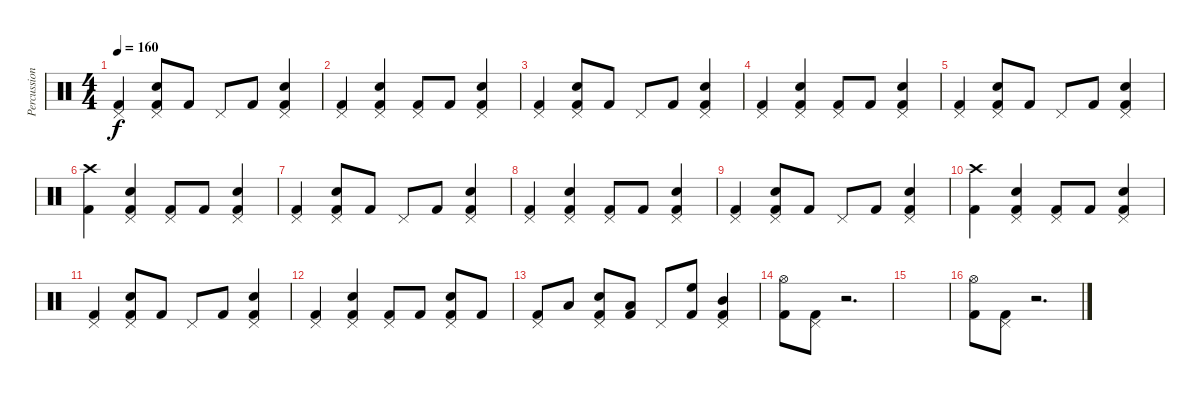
\track ("Percussion" "Percussion") {instrument percussion}
\staff {score}
\articulation defaults
\ts (4 4)
\tempo 160
\clef neutral
\ks c
("Pedal Hi-Hat (hit)" "Kick (hit) 2").4{dy f} ("Pedal Hi-Hat (hit)" "Snare (hit) 2" "Kick (hit) 2").8 "Kick (hit) 2".8 "Pedal Hi-Hat (hit)".8 "Kick (hit) 2".8 ("Pedal Hi-Hat (hit)" "Snare (hit) 2" "Kick (hit) 2").4 |
("Pedal Hi-Hat (hit)" "Kick (hit) 2").4 ("Pedal Hi-Hat (hit)" "Snare (hit) 2" "Kick (hit) 2").4 ("Pedal Hi-Hat (hit)" "Kick (hit) 2").8 "Kick (hit) 2".8 ("Pedal Hi-Hat (hit)" "Snare (hit) 2" "Kick (hit) 2").4 |
("Pedal Hi-Hat (hit)" "Kick (hit) 2").4 ("Pedal Hi-Hat (hit)" "Snare (hit) 2" "Kick (hit) 2").8 "Kick (hit) 2".8 "Pedal Hi-Hat (hit)".8 "Kick (hit) 2".8 ("Pedal Hi-Hat (hit)" "Snare (hit) 2" "Kick (hit) 2").4 |
("Pedal Hi-Hat (hit)" "Kick (hit) 2").4 ("Pedal Hi-Hat (hit)" "Snare (hit) 2" "Kick (hit) 2").4 ("Pedal Hi-Hat (hit)" "Kick (hit) 2").8 "Kick (hit) 2".8 ("Pedal Hi-Hat (hit)" "Snare (hit) 2" "Kick (hit) 2").4 |
("Pedal Hi-Hat (hit)" "Kick (hit) 2").4 ("Pedal Hi-Hat (hit)" "Snare (hit) 2" "Kick (hit) 2").8 "Kick (hit) 2".8 "Pedal Hi-Hat (hit)".8 "Kick (hit) 2".8 ("Pedal Hi-Hat (hit)" "Snare (hit) 2" "Kick (hit) 2").4 |
("Crash high (hit)" "Kick (hit) 2").4 ("Pedal Hi-Hat (hit)" "Snare (hit) 2" "Kick (hit) 2").4 ("Pedal Hi-Hat (hit)" "Kick (hit) 2").8 "Kick (hit) 2".8 ("Pedal Hi-Hat (hit)" "Snare (hit) 2" "Kick (hit) 2").4 |
("Pedal Hi-Hat (hit)" "Kick (hit) 2").4 ("Pedal Hi-Hat (hit)" "Snare (hit) 2" "Kick (hit) 2").8 "Kick (hit) 2".8 "Pedal Hi-Hat (hit)".8 "Kick (hit) 2".8 ("Pedal Hi-Hat (hit)" "Snare (hit) 2" "Kick (hit) 2").4 |
("Pedal Hi-Hat (hit)" "Kick (hit) 2").4 ("Pedal Hi-Hat (hit)" "Snare (hit) 2" "Kick (hit) 2").4 ("Pedal Hi-Hat (hit)" "Kick (hit) 2").8 "Kick (hit) 2".8 ("Pedal Hi-Hat (hit)" "Snare (hit) 2" "Kick (hit) 2").4 |
("Pedal Hi-Hat (hit)" "Kick (hit) 2").4 ("Pedal Hi-Hat (hit)" "Snare (hit) 2" "Kick (hit) 2").8 "Kick (hit) 2".8 "Pedal Hi-Hat (hit)".8 "Kick (hit) 2".8 ("Pedal Hi-Hat (hit)" "Snare (hit) 2" "Kick (hit) 2").4 |
("Crash high (hit)" "Kick (hit) 2").4 ("Pedal Hi-Hat (hit)" "Snare (hit) 2" "Kick (hit) 2").4 ("Pedal Hi-Hat (hit)" "Kick (hit) 2").8 "Kick (hit) 2".8 ("Pedal Hi-Hat (hit)" "Snare (hit) 2" "Kick (hit) 2").4 |
("Pedal Hi-Hat (hit)" "Kick (hit) 2").4 ("Pedal Hi-Hat (hit)" "Snare (hit) 2" "Kick (hit) 2").8 "Kick (hit) 2".8 "Pedal Hi-Hat (hit)".8 "Kick (hit) 2".8 ("Pedal Hi-Hat (hit)" "Snare (hit) 2" "Kick (hit) 2").4 |
("Pedal Hi-Hat (hit)" "Kick (hit) 2").4 ("Pedal Hi-Hat (hit)" "Snare (hit) 2" "Kick (hit) 2").4 ("Pedal Hi-Hat (hit)" "Kick (hit) 2").8 "Kick (hit) 2".8 ("Pedal Hi-Hat (hit)" "Snare (hit) 2" "Kick (hit) 2").8 "Kick (hit) 2".8 |
("Pedal Hi-Hat (hit)" "Kick (hit) 2").8 "Low Tom (hit)".8 ("Pedal Hi-Hat (hit)" "Snare (hit) 2" "Kick (hit) 2").8 ("Low Tom (hit)" "Kick (hit) 2").8 "Pedal Hi-Hat (hit)".8 ("High Floor Tom (hit)" "Kick (hit) 2").8 ("Pedal Hi-Hat (hit)" "Mid Tom (hit)" "Kick (hit) 2").4 |
("Hi-Hat (open)" "Kick (hit) 2").8 ("Pedal Hi-Hat (hit)" "Kick (hit) 2").8 r.2{d} |
|
("Hi-Hat (open)" "Kick (hit) 2").8 ("Pedal Hi-Hat (hit)" "Kick (hit) 2").8 r.2{d}
